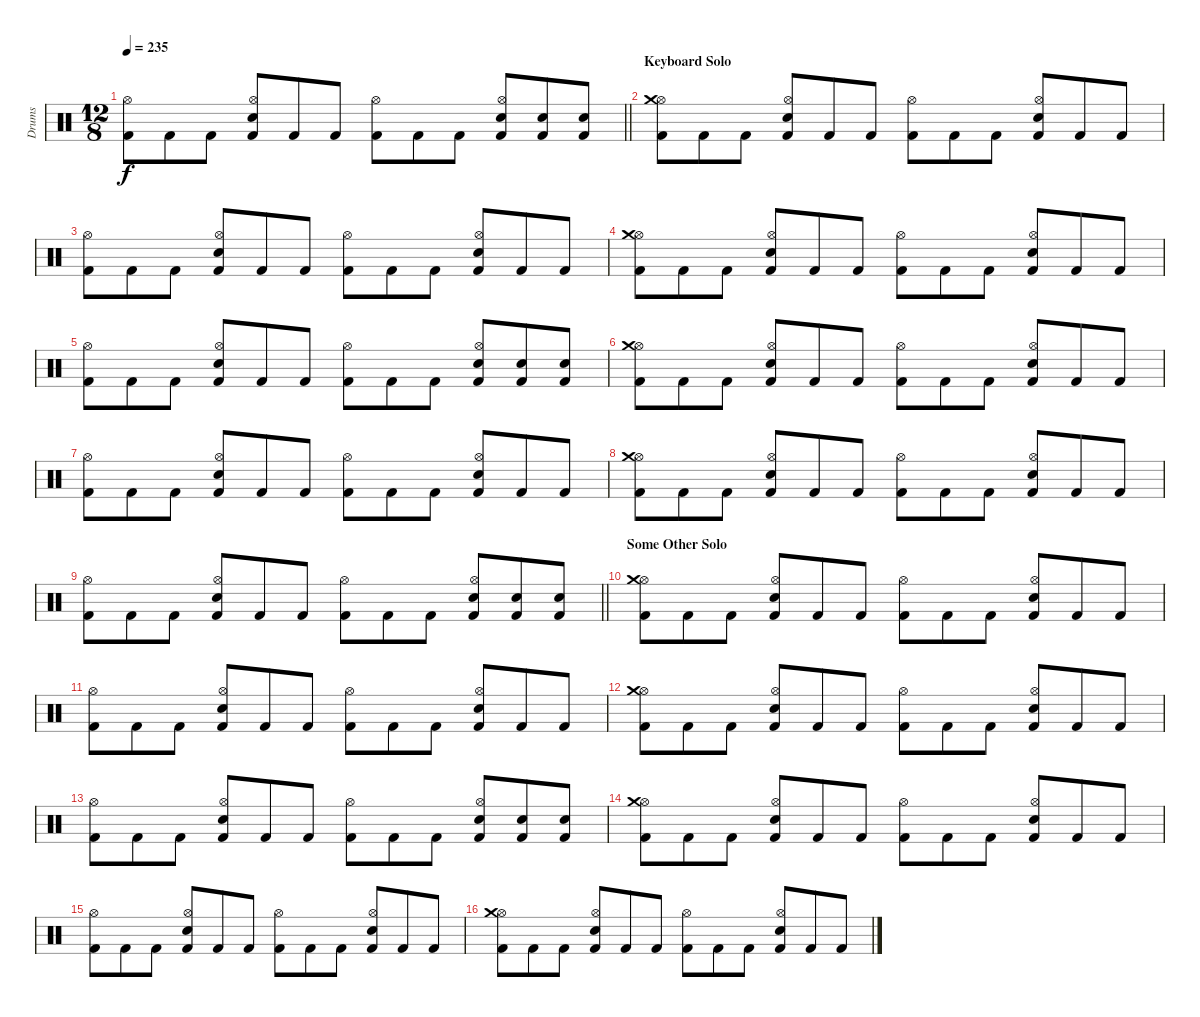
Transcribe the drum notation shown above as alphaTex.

\track ("Drums" "Drums") {instrument percussion}
\staff {score}
\articulation defaults
\ts (12 8)
\tempo 235
\clef neutral
\barLineRight lightlight
\ks c
("Kick (hit) 2" "Hi-Hat (open)").8{dy f} "Kick (hit) 2".8 "Kick (hit) 2".8 ("Hi-Hat (open)" "Kick (hit) 2" "Snare (hit) 2").8 "Kick (hit) 2".8 "Kick (hit) 2".8 ("Kick (hit) 2" "Hi-Hat (open)").8 "Kick (hit) 2".8 "Kick (hit) 2".8 ("Kick (hit) 2" "Hi-Hat (open)" "Snare (hit) 2").8 ("Kick (hit) 2" "Snare (hit) 2").8 ("Kick (hit) 2" "Snare (hit) 2").8 |
\section ("" "Keyboard Solo")
("Kick (hit) 2" "Hi-Hat (open)" "Crash medium (hit)").8 "Kick (hit) 2".8 "Kick (hit) 2".8 ("Snare (hit) 2" "Hi-Hat (open)" "Kick (hit) 2").8 "Kick (hit) 2".8 "Kick (hit) 2".8 ("Hi-Hat (open)" "Kick (hit) 2").8 "Kick (hit) 2".8 "Kick (hit) 2".8 ("Kick (hit) 2" "Snare (hit) 2" "Hi-Hat (open)").8 "Kick (hit) 2".8 "Kick (hit) 2".8 |
("Hi-Hat (open)" "Kick (hit) 2").8 "Kick (hit) 2".8 "Kick (hit) 2".8 ("Snare (hit) 2" "Kick (hit) 2" "Hi-Hat (open)").8 "Kick (hit) 2".8 "Kick (hit) 2".8 ("Hi-Hat (open)" "Kick (hit) 2").8 "Kick (hit) 2".8 "Kick (hit) 2".8 ("Hi-Hat (open)" "Kick (hit) 2" "Snare (hit) 2").8 "Kick (hit) 2".8 "Kick (hit) 2".8 |
("Hi-Hat (open)" "Kick (hit) 2" "Crash medium (hit)").8 "Kick (hit) 2".8 "Kick (hit) 2".8 ("Kick (hit) 2" "Snare (hit) 2" "Hi-Hat (open)").8 "Kick (hit) 2".8 "Kick (hit) 2".8 ("Kick (hit) 2" "Hi-Hat (open)").8 "Kick (hit) 2".8 "Kick (hit) 2".8 ("Snare (hit) 2" "Kick (hit) 2" "Hi-Hat (open)").8 "Kick (hit) 2".8 "Kick (hit) 2".8 |
("Kick (hit) 2" "Hi-Hat (open)").8 "Kick (hit) 2".8 "Kick (hit) 2".8 ("Hi-Hat (open)" "Kick (hit) 2" "Snare (hit) 2").8 "Kick (hit) 2".8 "Kick (hit) 2".8 ("Kick (hit) 2" "Hi-Hat (open)").8 "Kick (hit) 2".8 "Kick (hit) 2".8 ("Kick (hit) 2" "Hi-Hat (open)" "Snare (hit) 2").8 ("Kick (hit) 2" "Snare (hit) 2").8 ("Kick (hit) 2" "Snare (hit) 2").8 |
("Kick (hit) 2" "Hi-Hat (open)" "Crash medium (hit)").8 "Kick (hit) 2".8 "Kick (hit) 2".8 ("Snare (hit) 2" "Hi-Hat (open)" "Kick (hit) 2").8 "Kick (hit) 2".8 "Kick (hit) 2".8 ("Hi-Hat (open)" "Kick (hit) 2").8 "Kick (hit) 2".8 "Kick (hit) 2".8 ("Kick (hit) 2" "Snare (hit) 2" "Hi-Hat (open)").8 "Kick (hit) 2".8 "Kick (hit) 2".8 |
("Hi-Hat (open)" "Kick (hit) 2").8 "Kick (hit) 2".8 "Kick (hit) 2".8 ("Snare (hit) 2" "Kick (hit) 2" "Hi-Hat (open)").8 "Kick (hit) 2".8 "Kick (hit) 2".8 ("Hi-Hat (open)" "Kick (hit) 2").8 "Kick (hit) 2".8 "Kick (hit) 2".8 ("Hi-Hat (open)" "Kick (hit) 2" "Snare (hit) 2").8 "Kick (hit) 2".8 "Kick (hit) 2".8 |
("Hi-Hat (open)" "Kick (hit) 2" "Crash medium (hit)").8 "Kick (hit) 2".8 "Kick (hit) 2".8 ("Kick (hit) 2" "Snare (hit) 2" "Hi-Hat (open)").8 "Kick (hit) 2".8 "Kick (hit) 2".8 ("Kick (hit) 2" "Hi-Hat (open)").8 "Kick (hit) 2".8 "Kick (hit) 2".8 ("Snare (hit) 2" "Kick (hit) 2" "Hi-Hat (open)").8 "Kick (hit) 2".8 "Kick (hit) 2".8 |
\barLineRight lightlight
("Kick (hit) 2" "Hi-Hat (open)").8 "Kick (hit) 2".8 "Kick (hit) 2".8 ("Hi-Hat (open)" "Kick (hit) 2" "Snare (hit) 2").8 "Kick (hit) 2".8 "Kick (hit) 2".8 ("Kick (hit) 2" "Hi-Hat (open)").8 "Kick (hit) 2".8 "Kick (hit) 2".8 ("Kick (hit) 2" "Hi-Hat (open)" "Snare (hit) 2").8 ("Kick (hit) 2" "Snare (hit) 2").8 ("Kick (hit) 2" "Snare (hit) 2").8 |
\section ("" "Some Other Solo")
("Kick (hit) 2" "Hi-Hat (open)" "Crash medium (hit)").8 "Kick (hit) 2".8 "Kick (hit) 2".8 ("Snare (hit) 2" "Hi-Hat (open)" "Kick (hit) 2").8 "Kick (hit) 2".8 "Kick (hit) 2".8 ("Hi-Hat (open)" "Kick (hit) 2").8 "Kick (hit) 2".8 "Kick (hit) 2".8 ("Kick (hit) 2" "Snare (hit) 2" "Hi-Hat (open)").8 "Kick (hit) 2".8 "Kick (hit) 2".8 |
("Hi-Hat (open)" "Kick (hit) 2").8 "Kick (hit) 2".8 "Kick (hit) 2".8 ("Snare (hit) 2" "Kick (hit) 2" "Hi-Hat (open)").8 "Kick (hit) 2".8 "Kick (hit) 2".8 ("Hi-Hat (open)" "Kick (hit) 2").8 "Kick (hit) 2".8 "Kick (hit) 2".8 ("Hi-Hat (open)" "Kick (hit) 2" "Snare (hit) 2").8 "Kick (hit) 2".8 "Kick (hit) 2".8 |
("Hi-Hat (open)" "Kick (hit) 2" "Crash medium (hit)").8 "Kick (hit) 2".8 "Kick (hit) 2".8 ("Kick (hit) 2" "Snare (hit) 2" "Hi-Hat (open)").8 "Kick (hit) 2".8 "Kick (hit) 2".8 ("Kick (hit) 2" "Hi-Hat (open)").8 "Kick (hit) 2".8 "Kick (hit) 2".8 ("Snare (hit) 2" "Kick (hit) 2" "Hi-Hat (open)").8 "Kick (hit) 2".8 "Kick (hit) 2".8 |
("Kick (hit) 2" "Hi-Hat (open)").8 "Kick (hit) 2".8 "Kick (hit) 2".8 ("Hi-Hat (open)" "Kick (hit) 2" "Snare (hit) 2").8 "Kick (hit) 2".8 "Kick (hit) 2".8 ("Kick (hit) 2" "Hi-Hat (open)").8 "Kick (hit) 2".8 "Kick (hit) 2".8 ("Kick (hit) 2" "Hi-Hat (open)" "Snare (hit) 2").8 ("Kick (hit) 2" "Snare (hit) 2").8 ("Kick (hit) 2" "Snare (hit) 2").8 |
("Kick (hit) 2" "Hi-Hat (open)" "Crash medium (hit)").8 "Kick (hit) 2".8 "Kick (hit) 2".8 ("Snare (hit) 2" "Hi-Hat (open)" "Kick (hit) 2").8 "Kick (hit) 2".8 "Kick (hit) 2".8 ("Hi-Hat (open)" "Kick (hit) 2").8 "Kick (hit) 2".8 "Kick (hit) 2".8 ("Kick (hit) 2" "Snare (hit) 2" "Hi-Hat (open)").8 "Kick (hit) 2".8 "Kick (hit) 2".8 |
("Hi-Hat (open)" "Kick (hit) 2").8 "Kick (hit) 2".8 "Kick (hit) 2".8 ("Snare (hit) 2" "Kick (hit) 2" "Hi-Hat (open)").8 "Kick (hit) 2".8 "Kick (hit) 2".8 ("Hi-Hat (open)" "Kick (hit) 2").8 "Kick (hit) 2".8 "Kick (hit) 2".8 ("Hi-Hat (open)" "Kick (hit) 2" "Snare (hit) 2").8 "Kick (hit) 2".8 "Kick (hit) 2".8 |
("Hi-Hat (open)" "Kick (hit) 2" "Crash medium (hit)").8 "Kick (hit) 2".8 "Kick (hit) 2".8 ("Kick (hit) 2" "Snare (hit) 2" "Hi-Hat (open)").8 "Kick (hit) 2".8 "Kick (hit) 2".8 ("Kick (hit) 2" "Hi-Hat (open)").8 "Kick (hit) 2".8 "Kick (hit) 2".8 ("Snare (hit) 2" "Kick (hit) 2" "Hi-Hat (open)").8 "Kick (hit) 2".8 "Kick (hit) 2".8
